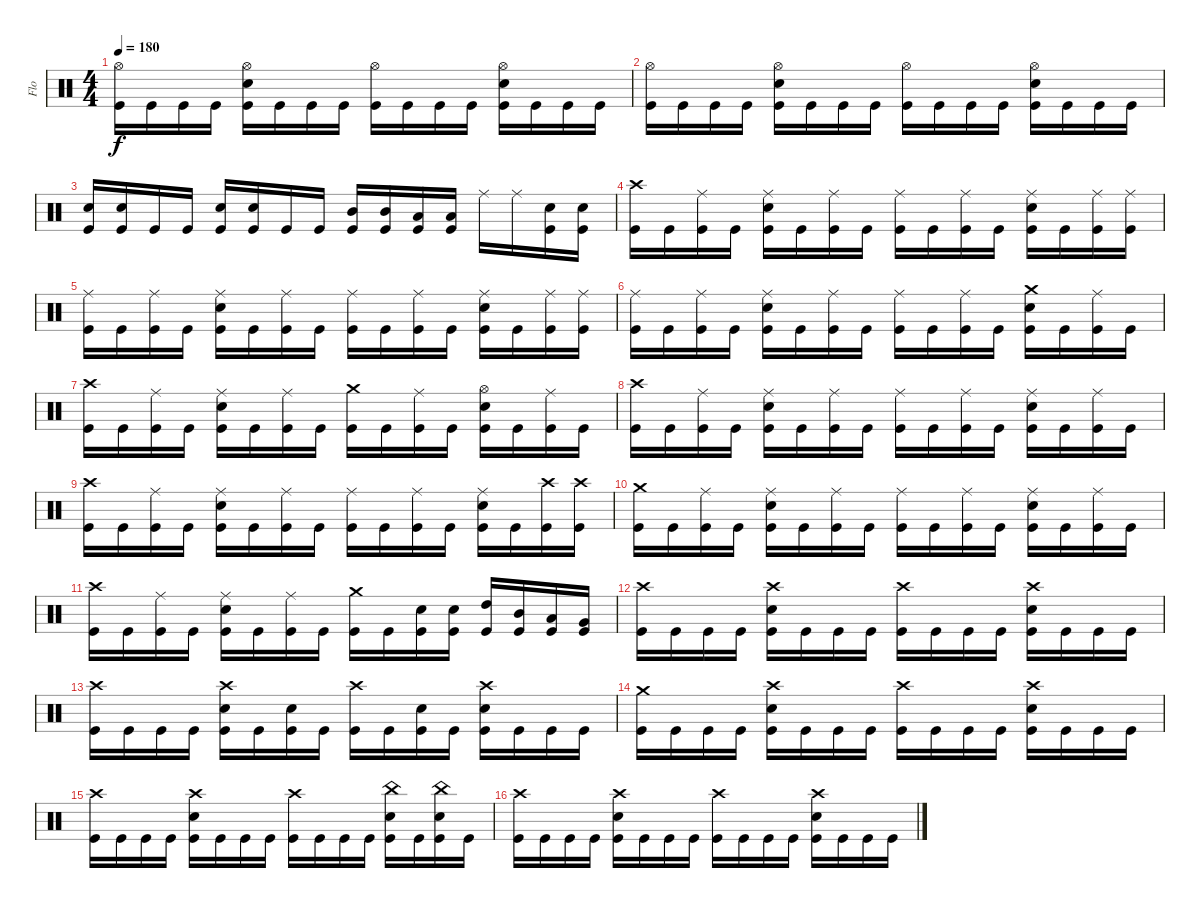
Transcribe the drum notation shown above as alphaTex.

\track ("Flo" "Flo") {instrument percussion}
\staff {score}
\articulation defaults
\ts (4 4)
\tempo 180
\clef neutral
\ks c
("Hi-Hat (open)" "Kick (hit)").16{dy f} "Kick (hit)".16 "Kick (hit)".16 "Kick (hit)".16 ("Hi-Hat (open)" "Snare (hit) 2" "Kick (hit)").16 "Kick (hit)".16 "Kick (hit)".16 "Kick (hit)".16 ("Hi-Hat (open)" "Kick (hit)").16 "Kick (hit)".16 "Kick (hit)".16 "Kick (hit)".16 ("Hi-Hat (open)" "Snare (hit) 2" "Kick (hit)").16 "Kick (hit)".16 "Kick (hit)".16 "Kick (hit)".16 |
("Hi-Hat (open)" "Kick (hit)").16 "Kick (hit)".16 "Kick (hit)".16 "Kick (hit)".16 ("Hi-Hat (open)" "Snare (hit) 2" "Kick (hit)").16 "Kick (hit)".16 "Kick (hit)".16 "Kick (hit)".16 ("Hi-Hat (open)" "Kick (hit)").16 "Kick (hit)".16 "Kick (hit)".16 "Kick (hit)".16 ("Hi-Hat (open)" "Snare (hit) 2" "Kick (hit)").16 "Kick (hit)".16 "Kick (hit)".16 "Kick (hit)".16 |
("Snare (hit) 2" "Kick (hit)").16 ("Snare (hit) 2" "Kick (hit)").16 "Kick (hit)".16 "Kick (hit)".16 ("Snare (hit) 2" "Kick (hit)").16 ("Snare (hit) 2" "Kick (hit)").16 "Kick (hit)".16 "Kick (hit)".16 ("Mid Tom (hit)" "Kick (hit)").16 ("Mid Tom (hit)" "Kick (hit)").16 ("Low Tom (hit)" "Kick (hit)").16 ("Low Tom (hit)" "Kick (hit)").16 "Ride (middle)".16 "Ride (middle)".16 ("Snare (hit) 2" "Kick (hit)").16 ("Snare (hit) 2" "Kick (hit)").16 |
("Crash high (hit)" "Kick (hit)").16 "Kick (hit)".16 ("Ride (middle)" "Kick (hit)").16 "Kick (hit)".16 ("Ride (middle)" "Snare (hit) 2" "Kick (hit)").16 "Kick (hit)".16 ("Ride (middle)" "Kick (hit)").16 "Kick (hit)".16 ("Ride (middle)" "Kick (hit)").16 "Kick (hit)".16 ("Ride (middle)" "Kick (hit)").16 "Kick (hit)".16 ("Ride (middle)" "Snare (hit) 2" "Kick (hit)").16 "Kick (hit)".16 ("Ride (middle)" "Kick (hit)").16 ("Ride (middle)" "Kick (hit)").16 |
("Ride (middle)" "Kick (hit)").16 "Kick (hit)".16 ("Ride (middle)" "Kick (hit)").16 "Kick (hit)".16 ("Ride (middle)" "Snare (hit) 2" "Kick (hit)").16 "Kick (hit)".16 ("Ride (middle)" "Kick (hit)").16 "Kick (hit)".16 ("Ride (middle)" "Kick (hit)").16 "Kick (hit)".16 ("Ride (middle)" "Kick (hit)").16 "Kick (hit)".16 ("Ride (middle)" "Snare (hit) 2" "Kick (hit)").16 "Kick (hit)".16 ("Ride (middle)" "Kick (hit)").16 ("Ride (middle)" "Kick (hit)").16 |
("Ride (middle)" "Kick (hit)").16 "Kick (hit)".16 ("Ride (middle)" "Kick (hit)").16 "Kick (hit)".16 ("Ride (middle)" "Snare (hit) 2" "Kick (hit)").16 "Kick (hit)".16 ("Ride (middle)" "Kick (hit)").16 "Kick (hit)".16 ("Ride (middle)" "Kick (hit)").16 "Kick (hit)".16 ("Ride (middle)" "Kick (hit)").16 "Kick (hit)".16 ("Crash medium (hit)" "Snare (hit) 2" "Kick (hit)").16 "Kick (hit)".16 ("Ride (middle)" "Kick (hit)").16 "Kick (hit)".16 |
("Crash high (hit)" "Kick (hit)").16 "Kick (hit)".16 ("Ride (middle)" "Kick (hit)").16 "Kick (hit)".16 ("Ride (middle)" "Snare (hit) 2" "Kick (hit)").16 "Kick (hit)".16 ("Ride (middle)" "Kick (hit)").16 "Kick (hit)".16 ("Crash medium (hit)" "Kick (hit)").16 "Kick (hit)".16 ("Ride (middle)" "Kick (hit)").16 "Kick (hit)".16 ("Hi-Hat (open)" "Snare (hit) 2" "Kick (hit)").16 "Kick (hit)".16 ("Ride (middle)" "Kick (hit)").16 "Kick (hit)".16 |
("Crash high (hit)" "Kick (hit)").16 "Kick (hit)".16 ("Ride (middle)" "Kick (hit)").16 "Kick (hit)".16 ("Ride (middle)" "Snare (hit) 2" "Kick (hit)").16 "Kick (hit)".16 ("Ride (middle)" "Kick (hit)").16 "Kick (hit)".16 ("Ride (middle)" "Kick (hit)").16 "Kick (hit)".16 ("Ride (middle)" "Kick (hit)").16 "Kick (hit)".16 ("Ride (middle)" "Snare (hit) 2" "Kick (hit)").16 "Kick (hit)".16 ("Ride (middle)" "Kick (hit)").16 "Kick (hit)".16 |
("Crash high (hit)" "Kick (hit)").16 "Kick (hit)".16 ("Ride (middle)" "Kick (hit)").16 "Kick (hit)".16 ("Ride (middle)" "Snare (hit) 2" "Kick (hit)").16 "Kick (hit)".16 ("Ride (middle)" "Kick (hit)").16 "Kick (hit)".16 ("Ride (middle)" "Kick (hit)").16 "Kick (hit)".16 ("Ride (middle)" "Kick (hit)").16 "Kick (hit)".16 ("Ride (middle)" "Snare (hit) 2" "Kick (hit)").16 "Kick (hit)".16 ("Crash high (hit)" "Kick (hit)").16 ("Crash high (hit)" "Kick (hit)").16 |
("Crash medium (hit)" "Kick (hit)").16 "Kick (hit)".16 ("Ride (middle)" "Kick (hit)").16 "Kick (hit)".16 ("Ride (middle)" "Snare (hit) 2" "Kick (hit)").16 "Kick (hit)".16 ("Ride (middle)" "Kick (hit)").16 "Kick (hit)".16 ("Ride (middle)" "Kick (hit)").16 "Kick (hit)".16 ("Ride (middle)" "Kick (hit)").16 "Kick (hit)".16 ("Ride (middle)" "Snare (hit) 2" "Kick (hit)").16 "Kick (hit)".16 ("Ride (middle)" "Kick (hit)").16 "Kick (hit)".16 |
("Crash high (hit)" "Kick (hit)").16 "Kick (hit)".16 ("Ride (middle)" "Kick (hit)").16 "Kick (hit)".16 ("Ride (middle)" "Snare (hit) 2" "Kick (hit)").16 "Kick (hit)".16 ("Ride (middle)" "Kick (hit)").16 "Kick (hit)".16 ("Crash medium (hit)" "Kick (hit)").16 "Kick (hit)".16 ("Snare (hit) 2" "Kick (hit)").16 ("Snare (hit) 2" "Kick (hit)").16 ("High Tom (hit)" "Kick (hit)").16 ("Mid Tom (hit)" "Kick (hit)").16 ("Low Tom (hit)" "Kick (hit)").16 ("Very Low Tom (hit)" "Kick (hit)").16 |
("Crash high (hit)" "Kick (hit)").16 "Kick (hit)".16 "Kick (hit)".16 "Kick (hit)".16 ("Crash high (hit)" "Snare (hit) 2" "Kick (hit)").16 "Kick (hit)".16 "Kick (hit)".16 "Kick (hit)".16 ("Crash high (hit)" "Kick (hit)").16 "Kick (hit)".16 "Kick (hit)".16 "Kick (hit)".16 ("Crash high (hit)" "Snare (hit) 2" "Kick (hit)").16 "Kick (hit)".16 "Kick (hit)".16 "Kick (hit)".16 |
("Crash high (hit)" "Kick (hit)").16 "Kick (hit)".16 "Kick (hit)".16 "Kick (hit)".16 ("Crash high (hit)" "Snare (hit) 2" "Kick (hit)").16 "Kick (hit)".16 ("Snare (hit) 2" "Kick (hit)").16 "Kick (hit)".16 ("Crash high (hit)" "Kick (hit)").16 "Kick (hit)".16 ("Snare (hit) 2" "Kick (hit)").16 "Kick (hit)".16 ("Crash high (hit)" "Snare (hit) 2" "Kick (hit)").16 "Kick (hit)".16 "Kick (hit)".16 "Kick (hit)".16 |
("Crash medium (hit)" "Kick (hit)").16 "Kick (hit)".16 "Kick (hit)".16 "Kick (hit)".16 ("Crash high (hit)" "Snare (hit) 2" "Kick (hit)").16 "Kick (hit)".16 "Kick (hit)".16 "Kick (hit)".16 ("Crash high (hit)" "Kick (hit)").16 "Kick (hit)".16 "Kick (hit)".16 "Kick (hit)".16 ("Crash high (hit)" "Snare (hit) 2" "Kick (hit)").16 "Kick (hit)".16 "Kick (hit)".16 "Kick (hit)".16 |
("Crash high (hit)" "Kick (hit)").16 "Kick (hit)".16 "Kick (hit)".16 "Kick (hit)".16 ("Crash high (hit)" "Snare (hit) 2" "Kick (hit)").16 "Kick (hit)".16 "Kick (hit)".16 "Kick (hit)".16 ("Crash high (hit)" "Kick (hit)").16 "Kick (hit)".16 "Kick (hit)".16 "Kick (hit)".16 ("China (hit)" "Snare (hit) 2" "Kick (hit)").16 "Kick (hit)".16 ("China (hit)" "Snare (hit) 2" "Kick (hit)").16 "Kick (hit)".16 |
("Crash high (hit)" "Kick (hit)").16 "Kick (hit)".16 "Kick (hit)".16 "Kick (hit)".16 ("Crash high (hit)" "Snare (hit) 2" "Kick (hit)").16 "Kick (hit)".16 "Kick (hit)".16 "Kick (hit)".16 ("Crash high (hit)" "Kick (hit)").16 "Kick (hit)".16 "Kick (hit)".16 "Kick (hit)".16 ("Crash high (hit)" "Snare (hit) 2" "Kick (hit)").16 "Kick (hit)".16 "Kick (hit)".16 "Kick (hit)".16
